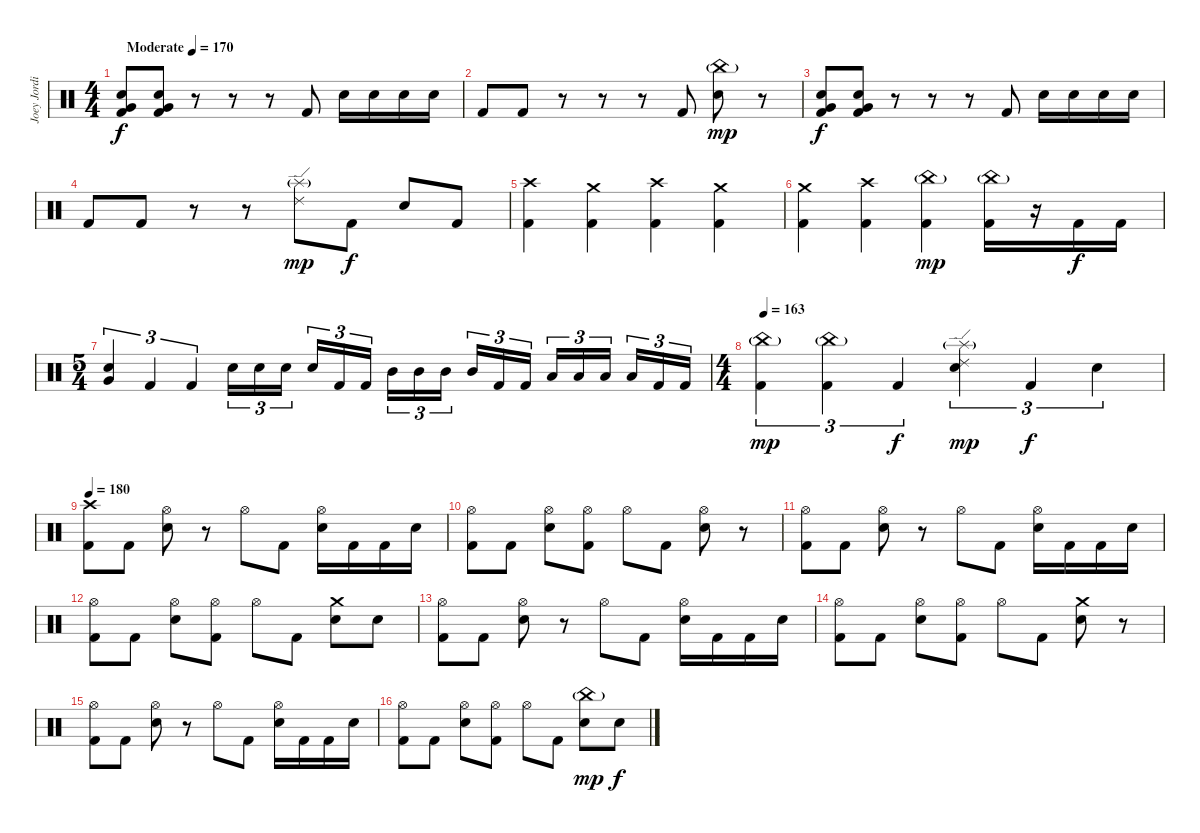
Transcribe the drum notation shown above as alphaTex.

\track ("Joey Jordison" "Joey Jordi") {instrument percussion}
\staff {score}
\articulation defaults
\ts (4 4)
\tempo (170 "Moderate")
\clef neutral
\ks c
("Very Low Tom (hit)" "Electric Snare (hit)" "Kick (hit) 2").8{dy f} ("Very Low Tom (hit)" "Electric Snare (hit)" "Kick (hit) 2").8 r.8 r.8 r.8 "Kick (hit) 2".8 "Electric Snare (hit)".16 "Electric Snare (hit)".16 "Electric Snare (hit)".16 "Electric Snare (hit)".16 |
"Kick (hit) 2".8 "Kick (hit) 2".8 r.8 r.8 r.8 "Kick (hit) 2".8 ("China (hit)"{g} "Electric Snare (hit)").8{dy mp} r.8 |
("Very Low Tom (hit)" "Electric Snare (hit)" "Kick (hit) 2").8{dy f} ("Very Low Tom (hit)" "Electric Snare (hit)" "Kick (hit) 2").8 r.8 r.8 r.8 "Kick (hit) 2".8 "Electric Snare (hit)".16 "Electric Snare (hit)".16 "Electric Snare (hit)".16 "Electric Snare (hit)".16 |
"Kick (hit) 2".8 "Kick (hit) 2".8 r.8 r.8 ("Splash (hit)"{g} "Ride (edge) 2").8{dy mp} "Kick (hit) 2".8{dy f} "Electric Snare (hit)".8 "Kick (hit) 2".8 |
("Crash high (hit)" "Kick (hit) 2").4 ("Crash medium (hit)" "Kick (hit) 2").4 ("Crash high (hit)" "Kick (hit) 2").4 ("Crash medium (hit)" "Kick (hit) 2").4 |
("Crash medium (hit)" "Kick (hit) 2").4 ("Crash high (hit)" "Kick (hit) 2").4 ("China (hit)"{g} "Kick (hit) 2").4{dy mp} ("China (hit)"{g} "Kick (hit) 2").16 r.16 "Kick (hit) 2".16{dy f} "Kick (hit) 2".16 |
\ts (5 4)
("Very Low Tom (hit)" "Electric Snare (hit)").4{tu (3 2)} "Kick (hit) 2".4{tu (3 2)} "Kick (hit) 2".4{tu (3 2)} "Electric Snare (hit)".16{tu (3 2)} "Electric Snare (hit)".16{tu (3 2)} "Electric Snare (hit)".16{tu (3 2) beam splitsecondary} "Electric Snare (hit)".16{tu (3 2)} "Kick (hit) 2".16{tu (3 2)} "Kick (hit) 2".16{tu (3 2)} "Mid Tom (hit)".16{tu (3 2)} "Mid Tom (hit)".16{tu (3 2)} "Mid Tom (hit)".16{tu (3 2) beam splitsecondary} "Mid Tom (hit)".16{tu (3 2)} "Kick (hit) 2".16{tu (3 2)} "Kick (hit) 2".16{tu (3 2)} "Low Tom (hit)".16{tu (3 2)} "Low Tom (hit)".16{tu (3 2)} "Low Tom (hit)".16{tu (3 2) beam splitsecondary} "Low Tom (hit)".16{tu (3 2)} "Kick (hit) 2".16{tu (3 2)} "Kick (hit) 2".16{tu (3 2)} |
\ts (4 4)
\tempo 163
("China (hit)"{g} "Kick (hit) 2").4{tu (3 2) dy mp} ("China (hit)"{g} "Kick (hit) 2").4{tu (3 2)} "Kick (hit) 2".4{tu (3 2) dy f} ("Ride (edge) 2" "Splash (hit)"{g} "Electric Snare (hit)").4{tu (3 2) dy mp} "Kick (hit) 2".4{tu (3 2) dy f} "Electric Snare (hit)".4{tu (3 2)} |
\tempo 180
("Crash high (hit)" "Kick (hit) 2").8 "Kick (hit) 2".8 ("Hi-Hat (open)" "Electric Snare (hit)").8 r.8 "Hi-Hat (open)".8 "Kick (hit) 2".8 ("Hi-Hat (open)" "Electric Snare (hit)").16 "Kick (hit) 2".16 "Kick (hit) 2".16 "Electric Snare (hit)".16 |
("Hi-Hat (open)" "Kick (hit) 2").8 "Kick (hit) 2".8 ("Hi-Hat (open)" "Electric Snare (hit)").8 ("Hi-Hat (open)" "Kick (hit) 2").8 "Hi-Hat (open)".8 "Kick (hit) 2".8 ("Hi-Hat (open)" "Electric Snare (hit)").8 r.8 |
("Hi-Hat (open)" "Kick (hit) 2").8 "Kick (hit) 2".8 ("Hi-Hat (open)" "Electric Snare (hit)").8 r.8 "Hi-Hat (open)".8 "Kick (hit) 2".8 ("Hi-Hat (open)" "Electric Snare (hit)").16 "Kick (hit) 2".16 "Kick (hit) 2".16 "Electric Snare (hit)".16 |
("Hi-Hat (open)" "Kick (hit) 2").8 "Kick (hit) 2".8 ("Hi-Hat (open)" "Electric Snare (hit)").8 ("Hi-Hat (open)" "Kick (hit) 2").8 "Hi-Hat (open)".8 "Kick (hit) 2".8 ("Crash medium (hit)" "Electric Snare (hit)").8 "Electric Snare (hit)".8 |
("Hi-Hat (open)" "Kick (hit) 2").8 "Kick (hit) 2".8 ("Hi-Hat (open)" "Electric Snare (hit)").8 r.8 "Hi-Hat (open)".8 "Kick (hit) 2".8 ("Hi-Hat (open)" "Electric Snare (hit)").16 "Kick (hit) 2".16 "Kick (hit) 2".16 "Electric Snare (hit)".16 |
("Hi-Hat (open)" "Kick (hit) 2").8 "Kick (hit) 2".8 ("Hi-Hat (open)" "Electric Snare (hit)").8 ("Hi-Hat (open)" "Kick (hit) 2").8 "Hi-Hat (open)".8 "Kick (hit) 2".8 ("Crash medium (hit)" "Electric Snare (hit)").8 r.8 |
("Hi-Hat (open)" "Kick (hit) 2").8 "Kick (hit) 2".8 ("Hi-Hat (open)" "Electric Snare (hit)").8 r.8 "Hi-Hat (open)".8 "Kick (hit) 2".8 ("Hi-Hat (open)" "Electric Snare (hit)").16 "Kick (hit) 2".16 "Kick (hit) 2".16 "Electric Snare (hit)".16 |
("Hi-Hat (open)" "Kick (hit) 2").8 "Kick (hit) 2".8 ("Hi-Hat (open)" "Electric Snare (hit)").8 ("Hi-Hat (open)" "Kick (hit) 2").8 "Hi-Hat (open)".8 "Kick (hit) 2".8 ("China (hit)"{g} "Electric Snare (hit)").8{dy mp} "Electric Snare (hit)".8{dy f}
